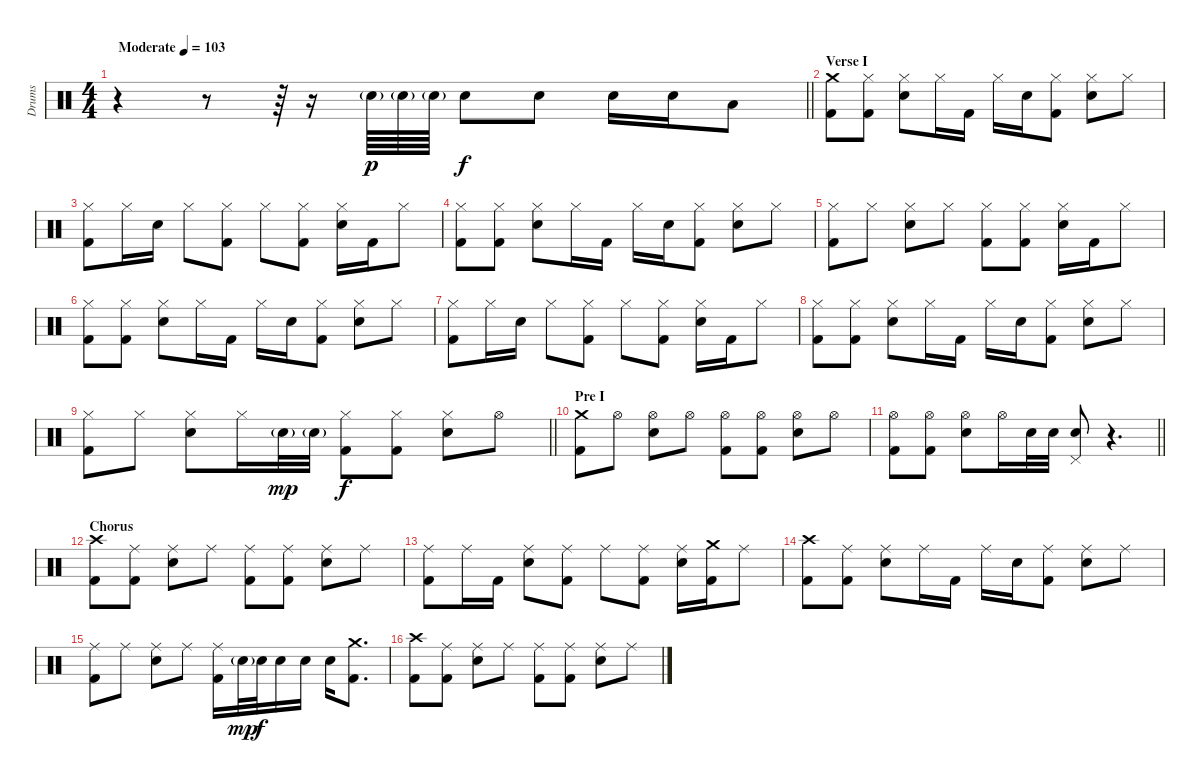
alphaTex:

\track ("Drums" "Drums") {instrument percussion}
\staff {score}
\articulation defaults
\ts (4 4)
\tempo (103 "Moderate")
\clef neutral
\barLineRight lightlight
\ks c
r.4{dy p} r.8 r.64 r.16 "Electric Snare (hit)"{g}.64 "Electric Snare (hit)"{g}.64 "Electric Snare (hit)"{g}.64 "Electric Snare (hit)".8{dy f} "Electric Snare (hit)".8 "Electric Snare (hit)".16 "Electric Snare (hit)".16 "Low Tom (hit)".8 |
\section ("" "Verse I")
("Crash medium (hit)" "Kick (hit) 2").8 ("Hi-Hat (closed)" "Kick (hit) 2").8 ("Hi-Hat (closed)" "Electric Snare (hit)").8 "Hi-Hat (closed)".16 "Kick (hit) 2".16 "Hi-Hat (closed)".16 "Electric Snare (hit)".16 ("Hi-Hat (closed)" "Kick (hit) 2").8 ("Hi-Hat (closed)" "Electric Snare (hit)").8 "Hi-Hat (closed)".8 |
("Hi-Hat (closed)" "Kick (hit) 2").8 "Hi-Hat (closed)".16 "Electric Snare (hit)".16 "Hi-Hat (closed)".8 ("Hi-Hat (closed)" "Kick (hit) 2").8 "Hi-Hat (closed)".8 ("Hi-Hat (closed)" "Kick (hit) 2").8 ("Hi-Hat (closed)" "Electric Snare (hit)").16 "Kick (hit) 2".16 "Hi-Hat (closed)".8 |
("Hi-Hat (closed)" "Kick (hit) 2").8 ("Hi-Hat (closed)" "Kick (hit) 2").8 ("Hi-Hat (closed)" "Electric Snare (hit)").8 "Hi-Hat (closed)".16 "Kick (hit) 2".16 "Hi-Hat (closed)".16 "Electric Snare (hit)".16 ("Hi-Hat (closed)" "Kick (hit) 2").8 ("Hi-Hat (closed)" "Electric Snare (hit)").8 "Hi-Hat (closed)".8 |
("Hi-Hat (closed)" "Kick (hit) 2").8 "Hi-Hat (closed)".8 ("Hi-Hat (closed)" "Electric Snare (hit)").8 "Hi-Hat (closed)".8 ("Hi-Hat (closed)" "Kick (hit) 2").8 ("Hi-Hat (closed)" "Kick (hit) 2").8 ("Hi-Hat (closed)" "Electric Snare (hit)").16 "Kick (hit) 2".16 "Hi-Hat (closed)".8 |
("Hi-Hat (closed)" "Kick (hit) 2").8 ("Hi-Hat (closed)" "Kick (hit) 2").8 ("Hi-Hat (closed)" "Electric Snare (hit)").8 "Hi-Hat (closed)".16 "Kick (hit) 2".16 "Hi-Hat (closed)".16 "Electric Snare (hit)".16 ("Hi-Hat (closed)" "Kick (hit) 2").8 ("Hi-Hat (closed)" "Electric Snare (hit)").8 "Hi-Hat (closed)".8 |
("Hi-Hat (closed)" "Kick (hit) 2").8 "Hi-Hat (closed)".16 "Electric Snare (hit)".16 "Hi-Hat (closed)".8 ("Hi-Hat (closed)" "Kick (hit) 2").8 "Hi-Hat (closed)".8 ("Hi-Hat (closed)" "Kick (hit) 2").8 ("Hi-Hat (closed)" "Electric Snare (hit)").16 "Kick (hit) 2".16 "Hi-Hat (closed)".8 |
("Hi-Hat (closed)" "Kick (hit) 2").8 ("Hi-Hat (closed)" "Kick (hit) 2").8 ("Hi-Hat (closed)" "Electric Snare (hit)").8 "Hi-Hat (closed)".16 "Kick (hit) 2".16 "Hi-Hat (closed)".16 "Electric Snare (hit)".16 ("Hi-Hat (closed)" "Kick (hit) 2").8 ("Hi-Hat (closed)" "Electric Snare (hit)").8 "Hi-Hat (closed)".8 |
\barLineRight lightlight
("Hi-Hat (closed)" "Kick (hit) 2").8 "Hi-Hat (closed)".8 ("Hi-Hat (closed)" "Electric Snare (hit)").8 "Hi-Hat (closed)".16 "Electric Snare (hit)"{g}.32{dy mp} "Electric Snare (hit)"{g}.32 ("Hi-Hat (closed)" "Kick (hit) 2").8{dy f} ("Hi-Hat (closed)" "Kick (hit) 2").8 ("Hi-Hat (closed)" "Electric Snare (hit)").8 "Hi-Hat (open)".8 |
\section ("" "Pre I")
("Crash medium (hit)" "Kick (hit) 2").8 "Hi-Hat (open)".8 ("Hi-Hat (open)" "Electric Snare (hit)").8 "Hi-Hat (open)".8 ("Hi-Hat (open)" "Kick (hit) 2").8 ("Hi-Hat (open)" "Kick (hit) 2").8 ("Hi-Hat (open)" "Electric Snare (hit)").8 "Hi-Hat (open)".8 |
\barLineRight lightlight
("Hi-Hat (open)" "Kick (hit) 2").8 ("Hi-Hat (open)" "Kick (hit) 2").8 ("Hi-Hat (open)" "Electric Snare (hit)").8 "Hi-Hat (open)".16 "Electric Snare (hit)".32 "Electric Snare (hit)".32 ("Pedal Hi-Hat (hit)" "Electric Snare (hit)").8 r.4{d} |
\section ("" "Chorus")
("Crash high (hit)" "Kick (hit) 2").8 ("Ride (middle)" "Kick (hit) 2").8 ("Ride (middle)" "Electric Snare (hit)").8 "Ride (middle)".8 ("Ride (middle)" "Kick (hit) 2").8 ("Ride (middle)" "Kick (hit) 2").8 ("Ride (middle)" "Electric Snare (hit)").8 "Ride (middle)".8 |
("Ride (middle)" "Kick (hit) 2").8 "Ride (middle)".16 "Kick (hit) 2".16 ("Ride (middle)" "Electric Snare (hit)").8 ("Ride (middle)" "Kick (hit) 2").8 "Ride (middle)".8 ("Ride (middle)" "Kick (hit) 2").8 ("Ride (middle)" "Electric Snare (hit)").16 ("Crash medium (hit)" "Kick (hit) 2").16 "Ride (middle)".8 |
("Crash high (hit)" "Kick (hit) 2").8 ("Ride (middle)" "Kick (hit) 2").8 ("Ride (middle)" "Electric Snare (hit)").8 "Ride (middle)".16 "Kick (hit) 2".16 "Ride (middle)".16 "Electric Snare (hit)".16 ("Ride (middle)" "Kick (hit) 2").8 ("Ride (middle)" "Electric Snare (hit)").8 "Ride (middle)".8 |
("Ride (middle)" "Kick (hit) 2").8 "Ride (middle)".8 ("Ride (middle)" "Electric Snare (hit)").8 "Ride (middle)".8 ("Ride (middle)" "Kick (hit) 2").16 "Electric Snare (hit)"{g}.32{dy mp} "Electric Snare (hit)".32{dy f} "Electric Snare (hit)".16 "Electric Snare (hit)".16 "Electric Snare (hit)".16 ("Crash medium (hit)" "Kick (hit) 2").8{d} |
("Crash high (hit)" "Kick (hit) 2").8 ("Ride (middle)" "Kick (hit) 2").8 ("Ride (middle)" "Electric Snare (hit)").8 "Ride (middle)".8 ("Ride (middle)" "Kick (hit) 2").8 ("Ride (middle)" "Kick (hit) 2").8 ("Ride (middle)" "Electric Snare (hit)").8 "Ride (middle)".8
